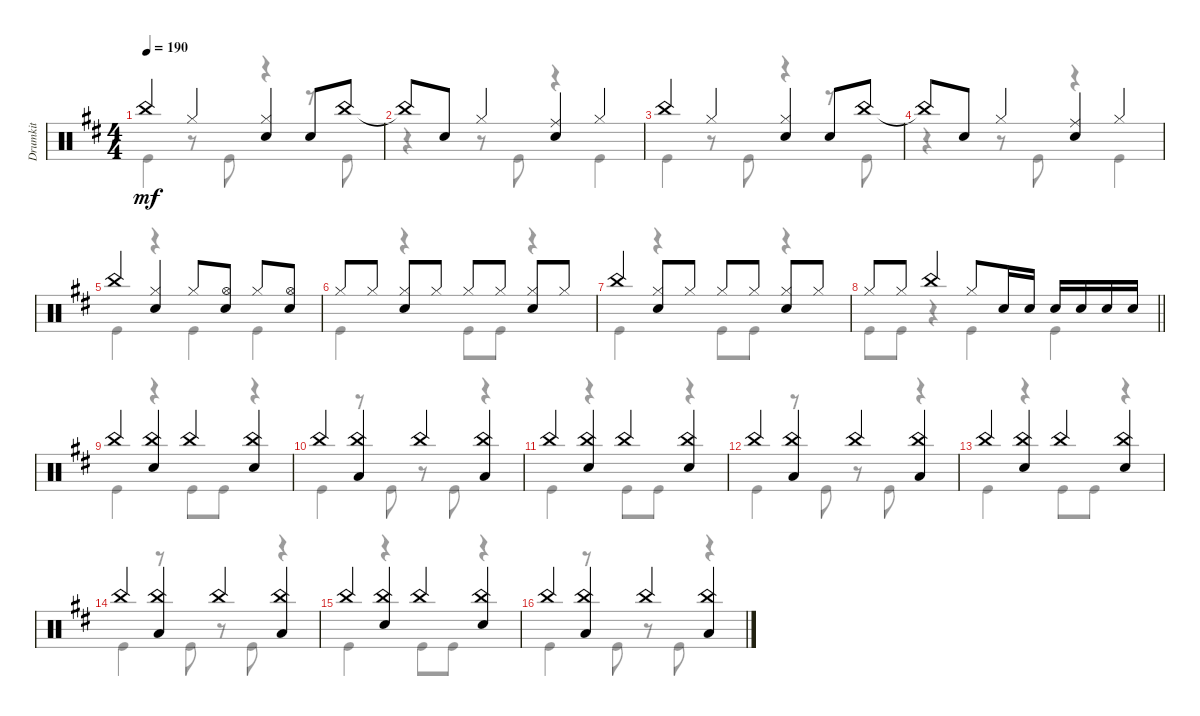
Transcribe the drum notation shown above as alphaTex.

\track ("Drumkit" "Drumkit") {instrument percussion}
\staff {score}
\articulation defaults
\voice
\ts (4 4)
\section ("" "")
\tempo 190
\clef neutral
\ks d "China (hit)".4{dy mf} "Hi-Hat (closed)".4
("Hi-Hat (closed)" "Snare (hit) 2").4 "Snare (hit) 2".8 "China (hit)".8 |
"China (hit)"{t}.8 "Snare (hit) 2".8 "Hi-Hat (closed)".4 ("Ride (middle)" "Snare (hit) 2").4 "Hi-Hat (closed)".4 |
"China (hit)".4 "Hi-Hat (closed)".4 ("Hi-Hat (closed)" "Snare (hit) 2").4 "Snare (hit) 2".8 "China (hit)".8 |
"China (hit)"{t}.8 "Snare (hit) 2".8 "Hi-Hat (closed)".4 ("Ride (middle)" "Snare (hit) 2").4 "Hi-Hat (closed)".4 |
"China (hit)".4 ("Hi-Hat (closed)" "Snare (hit) 2").4 "Hi-Hat (closed)".8 ("Hi-Hat (open)" "Snare (hit) 2").8 "Hi-Hat (closed)".8 ("Hi-Hat (open)" "Snare (hit) 2").8 |
"Hi-Hat (closed)".8 "Hi-Hat (closed)".8 ("Hi-Hat (closed)" "Snare (hit) 2").8 "Hi-Hat (closed)".8 "Hi-Hat (closed)".8 "Hi-Hat (closed)".8 ("Hi-Hat (closed)" "Snare (hit) 2").8 "Hi-Hat (closed)".8 |
"China (hit)".4 ("Hi-Hat (closed)" "Snare (hit) 2").8 "Hi-Hat (closed)".8 "Hi-Hat (closed)".8 "Hi-Hat (closed)".8 ("Hi-Hat (closed)" "Snare (hit) 2").8 "Hi-Hat (closed)".8 |
\barLineRight lightlight "Hi-Hat (closed)".8 "Hi-Hat (closed)".8 "China (hit)".4 "Hi-Hat (closed)".8 "Snare (hit) 2".16 "Snare (hit) 2".16 "Snare (hit) 2".16 "Snare (hit) 2".16 "Snare (hit) 2".16 "Snare (hit) 2".16
|
\section ("" "")
"China (hit)".4 ("China (hit)" "Snare (hit) 2").4 "China (hit)".4 ("China (hit)" "Snare (hit) 2").4 |
"China (hit)".4 ("China (hit)" "Low Tom (hit)").4 "China (hit)".4 ("China (hit)" "Low Tom (hit)").4 |
"China (hit)".4 ("China (hit)" "Snare (hit) 2").4 "China (hit)".4 ("China (hit)" "Snare (hit) 2").4 |
"China (hit)".4 ("China (hit)" "Low Tom (hit)").4 "China (hit)".4 ("China (hit)" "Low Tom (hit)").4 |
"China (hit)".4 ("China (hit)" "Snare (hit) 2").4 "China (hit)".4 ("China (hit)" "Snare (hit) 2").4 |
"China (hit)".4 ("China (hit)" "Low Tom (hit)").4 "China (hit)".4 ("China (hit)" "Low Tom (hit)").4 |
"China (hit)".4 ("China (hit)" "Snare (hit) 2").4 "China (hit)".4 ("China (hit)" "Snare (hit) 2").4 |
"China (hit)".4 ("China (hit)" "Low Tom (hit)").4 "China (hit)".4 ("China (hit)" "Low Tom (hit)").4
\voice
\clef neutral
\ottava regular
\simile none
\ks d "Kick (hit)".4{dy mf}
r.8 "Kick (hit)".8 r.4 r.8 "Kick (hit)".8 |
r.4 r.8 "Kick (hit)".8 r.4 "Kick (hit)".4 |
"Kick (hit)".4 r.8 "Kick (hit)".8 r.4 r.8 "Kick (hit)".8 |
r.4 r.8 "Kick (hit)".8 r.4 "Kick (hit)".4 |
"Kick (hit)".4 r.4 "Kick (hit)".4 "Kick (hit)".4 |
"Kick (hit)".4 r.4 "Kick (hit)".8 "Kick (hit)".8 r.4 |
"Kick (hit)".4 r.4 "Kick (hit)".8 "Kick (hit)".8 r.4 |
\barLineRight lightlight "Kick (hit)".8 "Kick (hit)".8
r.4 "Kick (hit)".4 "Kick (hit)".4 |
"Kick (hit)".4 r.4 "Kick (hit)".8 "Kick (hit)".8 r.4 |
"Kick (hit)".4 r.8 "Kick (hit)".8 r.8 "Kick (hit)".8 r.4 |
"Kick (hit)".4 r.4 "Kick (hit)".8 "Kick (hit)".8 r.4 |
"Kick (hit)".4 r.8 "Kick (hit)".8 r.8 "Kick (hit)".8 r.4 |
"Kick (hit)".4 r.4 "Kick (hit)".8 "Kick (hit)".8 r.4 |
"Kick (hit)".4 r.8 "Kick (hit)".8 r.8 "Kick (hit)".8 r.4 |
"Kick (hit)".4 r.4 "Kick (hit)".8 "Kick (hit)".8 r.4 |
"Kick (hit)".4 r.8 "Kick (hit)".8 r.8 "Kick (hit)".8 r.4
